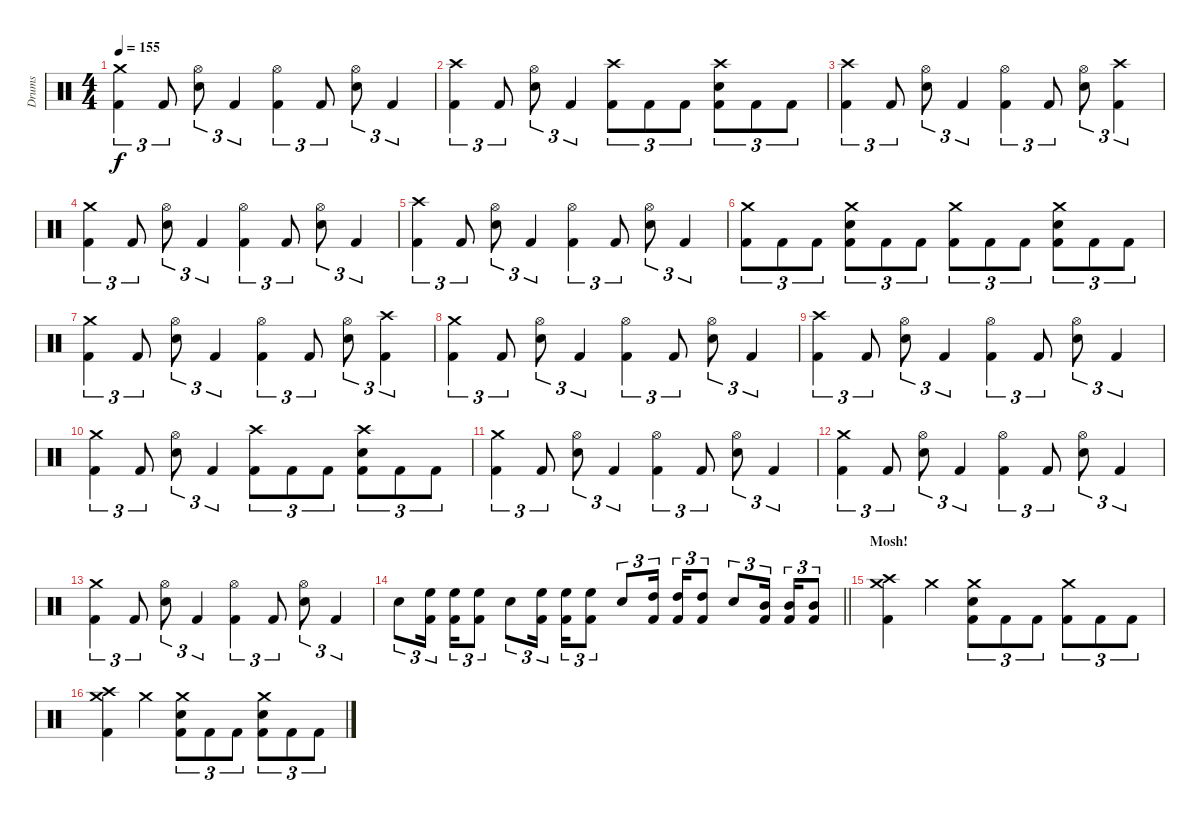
\track ("Drums" "Drums") {instrument percussion}
\staff {score}
\articulation defaults
\ts (4 4)
\tempo 155
\clef neutral
\ks c
("Crash medium (hit)" "Kick (hit) 2").4{tu (3 2) dy f} "Kick (hit) 2".8{tu (3 2)} ("Hi-Hat (open)" "Electric Snare (hit)").8{tu (3 2)} "Kick (hit) 2".4{tu (3 2)} ("Hi-Hat (open)" "Kick (hit) 2").4{tu (3 2)} "Kick (hit) 2".8{tu (3 2)} ("Hi-Hat (open)" "Electric Snare (hit)").8{tu (3 2)} "Kick (hit) 2".4{tu (3 2)} |
("Crash high (hit)" "Kick (hit) 2").4{tu (3 2)} "Kick (hit) 2".8{tu (3 2)} ("Hi-Hat (open)" "Electric Snare (hit)").8{tu (3 2)} "Kick (hit) 2".4{tu (3 2)} ("Crash high (hit)" "Kick (hit) 2").8{tu (3 2)} "Kick (hit) 2".8{tu (3 2)} "Kick (hit) 2".8{tu (3 2)} ("Crash high (hit)" "Electric Snare (hit)" "Kick (hit) 2").8{tu (3 2)} "Kick (hit) 2".8{tu (3 2)} "Kick (hit) 2".8{tu (3 2)} |
("Crash high (hit)" "Kick (hit) 2").4{tu (3 2)} "Kick (hit) 2".8{tu (3 2)} ("Hi-Hat (open)" "Electric Snare (hit)").8{tu (3 2)} "Kick (hit) 2".4{tu (3 2)} ("Hi-Hat (open)" "Kick (hit) 2").4{tu (3 2)} "Kick (hit) 2".8{tu (3 2)} ("Hi-Hat (open)" "Electric Snare (hit)").8{tu (3 2)} ("Crash high (hit)" "Kick (hit) 2").4{tu (3 2)} |
("Crash medium (hit)" "Kick (hit) 2").4{tu (3 2)} "Kick (hit) 2".8{tu (3 2)} ("Hi-Hat (open)" "Electric Snare (hit)").8{tu (3 2)} "Kick (hit) 2".4{tu (3 2)} ("Hi-Hat (open)" "Kick (hit) 2").4{tu (3 2)} "Kick (hit) 2".8{tu (3 2)} ("Hi-Hat (open)" "Electric Snare (hit)").8{tu (3 2)} "Kick (hit) 2".4{tu (3 2)} |
("Crash high (hit)" "Kick (hit) 2").4{tu (3 2)} "Kick (hit) 2".8{tu (3 2)} ("Hi-Hat (open)" "Electric Snare (hit)").8{tu (3 2)} "Kick (hit) 2".4{tu (3 2)} ("Hi-Hat (open)" "Kick (hit) 2").4{tu (3 2)} "Kick (hit) 2".8{tu (3 2)} ("Hi-Hat (open)" "Electric Snare (hit)").8{tu (3 2)} "Kick (hit) 2".4{tu (3 2)} |
("Crash medium (hit)" "Kick (hit) 2").8{tu (3 2)} "Kick (hit) 2".8{tu (3 2)} "Kick (hit) 2".8{tu (3 2)} ("Crash medium (hit)" "Electric Snare (hit)" "Kick (hit) 2").8{tu (3 2)} "Kick (hit) 2".8{tu (3 2)} "Kick (hit) 2".8{tu (3 2)} ("Crash medium (hit)" "Kick (hit) 2").8{tu (3 2)} "Kick (hit) 2".8{tu (3 2)} "Kick (hit) 2".8{tu (3 2)} ("Crash medium (hit)" "Electric Snare (hit)" "Kick (hit) 2").8{tu (3 2)} "Kick (hit) 2".8{tu (3 2)} "Kick (hit) 2".8{tu (3 2)} |
("Crash medium (hit)" "Kick (hit) 2").4{tu (3 2)} "Kick (hit) 2".8{tu (3 2)} ("Hi-Hat (open)" "Electric Snare (hit)").8{tu (3 2)} "Kick (hit) 2".4{tu (3 2)} ("Hi-Hat (open)" "Kick (hit) 2").4{tu (3 2)} "Kick (hit) 2".8{tu (3 2)} ("Hi-Hat (open)" "Electric Snare (hit)").8{tu (3 2)} ("Crash high (hit)" "Kick (hit) 2").4{tu (3 2)} |
("Crash medium (hit)" "Kick (hit) 2").4{tu (3 2)} "Kick (hit) 2".8{tu (3 2)} ("Hi-Hat (open)" "Electric Snare (hit)").8{tu (3 2)} "Kick (hit) 2".4{tu (3 2)} ("Hi-Hat (open)" "Kick (hit) 2").4{tu (3 2)} "Kick (hit) 2".8{tu (3 2)} ("Hi-Hat (open)" "Electric Snare (hit)").8{tu (3 2)} "Kick (hit) 2".4{tu (3 2)} |
("Crash high (hit)" "Kick (hit) 2").4{tu (3 2)} "Kick (hit) 2".8{tu (3 2)} ("Hi-Hat (open)" "Electric Snare (hit)").8{tu (3 2)} "Kick (hit) 2".4{tu (3 2)} ("Hi-Hat (open)" "Kick (hit) 2").4{tu (3 2)} "Kick (hit) 2".8{tu (3 2)} ("Hi-Hat (open)" "Electric Snare (hit)").8{tu (3 2)} "Kick (hit) 2".4{tu (3 2)} |
("Crash medium (hit)" "Kick (hit) 2").4{tu (3 2)} "Kick (hit) 2".8{tu (3 2)} ("Hi-Hat (open)" "Electric Snare (hit)").8{tu (3 2)} "Kick (hit) 2".4{tu (3 2)} ("Crash high (hit)" "Kick (hit) 2").8{tu (3 2)} "Kick (hit) 2".8{tu (3 2)} "Kick (hit) 2".8{tu (3 2)} ("Crash high (hit)" "Electric Snare (hit)" "Kick (hit) 2").8{tu (3 2)} "Kick (hit) 2".8{tu (3 2)} "Kick (hit) 2".8{tu (3 2)} |
("Crash medium (hit)" "Kick (hit) 2").4{tu (3 2)} "Kick (hit) 2".8{tu (3 2)} ("Hi-Hat (open)" "Electric Snare (hit)").8{tu (3 2)} "Kick (hit) 2".4{tu (3 2)} ("Hi-Hat (open)" "Kick (hit) 2").4{tu (3 2)} "Kick (hit) 2".8{tu (3 2)} ("Hi-Hat (open)" "Electric Snare (hit)").8{tu (3 2)} "Kick (hit) 2".4{tu (3 2)} |
("Crash medium (hit)" "Kick (hit) 2").4{tu (3 2)} "Kick (hit) 2".8{tu (3 2)} ("Hi-Hat (open)" "Electric Snare (hit)").8{tu (3 2)} "Kick (hit) 2".4{tu (3 2)} ("Hi-Hat (open)" "Kick (hit) 2").4{tu (3 2)} "Kick (hit) 2".8{tu (3 2)} ("Hi-Hat (open)" "Electric Snare (hit)").8{tu (3 2)} "Kick (hit) 2".4{tu (3 2)} |
("Crash medium (hit)" "Kick (hit) 2").4{tu (3 2)} "Kick (hit) 2".8{tu (3 2)} ("Hi-Hat (open)" "Electric Snare (hit)").8{tu (3 2)} "Kick (hit) 2".4{tu (3 2)} ("Hi-Hat (open)" "Kick (hit) 2").4{tu (3 2)} "Kick (hit) 2".8{tu (3 2)} ("Hi-Hat (open)" "Electric Snare (hit)").8{tu (3 2)} "Kick (hit) 2".4{tu (3 2)} |
\barLineRight lightlight "Electric Snare (hit)".8{tu (3 2)}
("High Floor Tom (hit)" "Kick (hit) 2").16{tu (3 2) beam splitsecondary} ("High Floor Tom (hit)" "Kick (hit) 2").16{tu (3 2)} ("High Floor Tom (hit)" "Kick (hit) 2").8{tu (3 2)} "Electric Snare (hit)".8{tu (3 2)} ("High Floor Tom (hit)" "Kick (hit) 2").16{tu (3 2) beam splitsecondary} ("High Floor Tom (hit)" "Kick (hit) 2").16{tu (3 2)} ("High Floor Tom (hit)" "Kick (hit) 2").8{tu (3 2)} "Electric Snare (hit)".8{tu (3 2)} ("High Tom (hit)" "Kick (hit) 2").16{tu (3 2) beam splitsecondary} ("High Tom (hit)" "Kick (hit) 2").16{tu (3 2)} ("High Tom (hit)" "Kick (hit) 2").8{tu (3 2)} "Electric Snare (hit)".8{tu (3 2)} ("Mid Tom (hit)" "Kick (hit) 2").16{tu (3 2) beam splitsecondary} ("Mid Tom (hit)" "Kick (hit) 2").16{tu (3 2)} ("Mid Tom (hit)" "Kick (hit) 2").8{tu (3 2)} |
\section ("" "Mosh!")
("Crash medium (hit)" "Crash high (hit)" "Kick (hit) 2").4 "Crash medium (hit)".4 ("Crash medium (hit)" "Electric Snare (hit)" "Kick (hit) 2").8{tu (3 2)} "Kick (hit) 2".8{tu (3 2)} "Kick (hit) 2".8{tu (3 2)} ("Crash medium (hit)" "Kick (hit) 2").8{tu (3 2)} "Kick (hit) 2".8{tu (3 2)} "Kick (hit) 2".8{tu (3 2)} |
("Crash medium (hit)" "Crash high (hit)" "Kick (hit) 2").4 "Crash medium (hit)".4 ("Crash medium (hit)" "Electric Snare (hit)" "Kick (hit) 2").8{tu (3 2)} "Kick (hit) 2".8{tu (3 2)} "Kick (hit) 2".8{tu (3 2)} ("Crash medium (hit)" "Electric Snare (hit)" "Kick (hit) 2").8{tu (3 2)} "Kick (hit) 2".8{tu (3 2)} "Kick (hit) 2".8{tu (3 2)}
